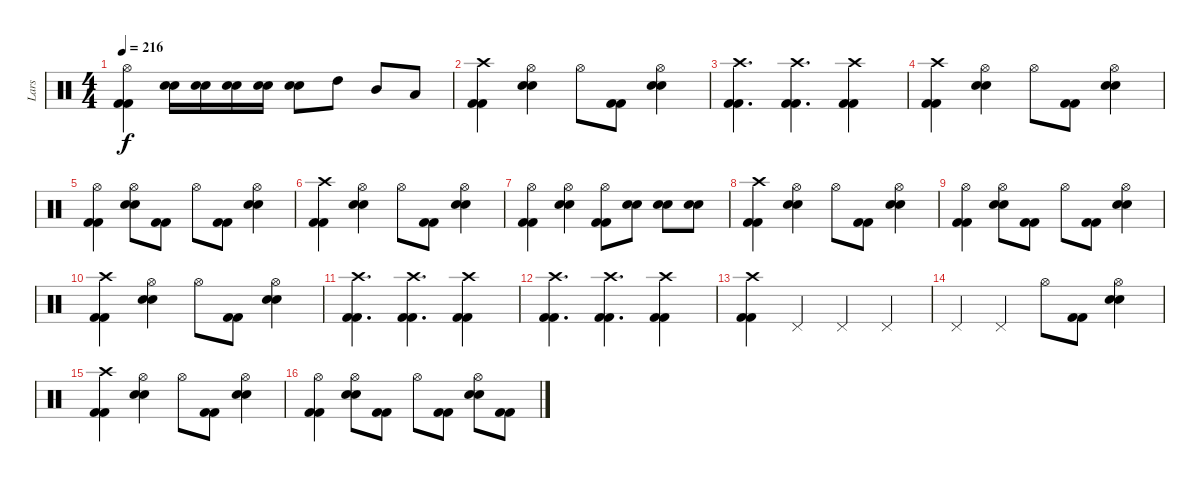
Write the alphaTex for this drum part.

\track ("Lars" "Lars") {instrument percussion}
\staff {score}
\articulation defaults
\ts (4 4)
\tempo 216
\clef neutral
\ks c
("Hi-Hat (open)" "Kick (hit) 2" "Kick (hit) 2").4{dy f} ("Electric Snare (hit)" "Electric Snare (hit)").16 ("Electric Snare (hit)" "Electric Snare (hit)").16 ("Electric Snare (hit)" "Electric Snare (hit)").16 ("Electric Snare (hit)" "Electric Snare (hit)").16 ("Electric Snare (hit)" "Electric Snare (hit)").8 "High Tom (hit)".8 "Mid Tom (hit)".8 "Low Tom (hit)".8 |
("Crash high (hit)" "Kick (hit) 2" "Kick (hit) 2").4 ("Hi-Hat (open)" "Electric Snare (hit)" "Electric Snare (hit)").4 "Hi-Hat (open)".8 ("Kick (hit) 2" "Kick (hit) 2").8 ("Hi-Hat (open)" "Electric Snare (hit)" "Electric Snare (hit)").4 |
("Crash high (hit)" "Kick (hit) 2" "Kick (hit) 2").4{d} ("Crash high (hit)" "Kick (hit) 2" "Kick (hit) 2").4{d} ("Crash high (hit)" "Kick (hit) 2" "Kick (hit) 2").4 |
("Crash high (hit)" "Kick (hit) 2" "Kick (hit) 2").4 ("Hi-Hat (open)" "Electric Snare (hit)" "Electric Snare (hit)").4 "Hi-Hat (open)".8 ("Kick (hit) 2" "Kick (hit) 2").8 ("Hi-Hat (open)" "Electric Snare (hit)" "Electric Snare (hit)").4 |
("Hi-Hat (open)" "Kick (hit) 2" "Kick (hit) 2").4 ("Hi-Hat (open)" "Electric Snare (hit)" "Electric Snare (hit)").8 ("Kick (hit) 2" "Kick (hit) 2").8 "Hi-Hat (open)".8 ("Kick (hit) 2" "Kick (hit) 2").8 ("Hi-Hat (open)" "Electric Snare (hit)" "Electric Snare (hit)").4 |
("Crash high (hit)" "Kick (hit) 2" "Kick (hit) 2").4 ("Hi-Hat (open)" "Electric Snare (hit)" "Electric Snare (hit)").4 "Hi-Hat (open)".8 ("Kick (hit) 2" "Kick (hit) 2").8 ("Hi-Hat (open)" "Electric Snare (hit)" "Electric Snare (hit)").4 |
("Hi-Hat (open)" "Kick (hit) 2" "Kick (hit) 2").4 ("Hi-Hat (open)" "Electric Snare (hit)" "Electric Snare (hit)").4 ("Hi-Hat (open)" "Kick (hit) 2" "Kick (hit) 2").8 ("Electric Snare (hit)" "Electric Snare (hit)").8 ("Electric Snare (hit)" "Electric Snare (hit)").8 ("Electric Snare (hit)" "Electric Snare (hit)").8 |
("Crash high (hit)" "Kick (hit) 2" "Kick (hit) 2").4 ("Hi-Hat (open)" "Electric Snare (hit)" "Electric Snare (hit)").4 "Hi-Hat (open)".8 ("Kick (hit) 2" "Kick (hit) 2").8 ("Hi-Hat (open)" "Electric Snare (hit)" "Electric Snare (hit)").4 |
("Hi-Hat (open)" "Kick (hit) 2" "Kick (hit) 2").4 ("Hi-Hat (open)" "Electric Snare (hit)" "Electric Snare (hit)").8 ("Kick (hit) 2" "Kick (hit) 2").8 "Hi-Hat (open)".8 ("Kick (hit) 2" "Kick (hit) 2").8 ("Hi-Hat (open)" "Electric Snare (hit)" "Electric Snare (hit)").4 |
("Crash high (hit)" "Kick (hit) 2" "Kick (hit) 2").4 ("Hi-Hat (open)" "Electric Snare (hit)" "Electric Snare (hit)").4 "Hi-Hat (open)".8 ("Kick (hit) 2" "Kick (hit) 2").8 ("Hi-Hat (open)" "Electric Snare (hit)" "Electric Snare (hit)").4 |
("Crash high (hit)" "Kick (hit) 2" "Kick (hit) 2").4{d} ("Crash high (hit)" "Kick (hit) 2" "Kick (hit) 2").4{d} ("Crash high (hit)" "Kick (hit) 2" "Kick (hit) 2").4 |
("Crash high (hit)" "Kick (hit) 2" "Kick (hit) 2").4{d} ("Crash high (hit)" "Kick (hit) 2" "Kick (hit) 2").4{d} ("Crash high (hit)" "Kick (hit) 2" "Kick (hit) 2").4 |
("Crash high (hit)" "Kick (hit) 2" "Kick (hit) 2").4 "Pedal Hi-Hat (hit)".4 "Pedal Hi-Hat (hit)".4 "Pedal Hi-Hat (hit)".4 |
"Pedal Hi-Hat (hit)".4 "Pedal Hi-Hat (hit)".4 "Hi-Hat (open)".8 ("Kick (hit) 2" "Kick (hit) 2").8 ("Hi-Hat (open)" "Electric Snare (hit)" "Electric Snare (hit)").4 |
("Crash high (hit)" "Kick (hit) 2" "Kick (hit) 2").4 ("Hi-Hat (open)" "Electric Snare (hit)" "Electric Snare (hit)").4 "Hi-Hat (open)".8 ("Kick (hit) 2" "Kick (hit) 2").8 ("Hi-Hat (open)" "Electric Snare (hit)" "Electric Snare (hit)").4 |
("Hi-Hat (open)" "Kick (hit) 2" "Kick (hit) 2").4 ("Hi-Hat (open)" "Electric Snare (hit)" "Electric Snare (hit)").8 ("Kick (hit) 2" "Kick (hit) 2").8 "Hi-Hat (open)".8 ("Kick (hit) 2" "Kick (hit) 2").8 ("Hi-Hat (open)" "Electric Snare (hit)" "Electric Snare (hit)").8 ("Kick (hit) 2" "Kick (hit) 2").8
